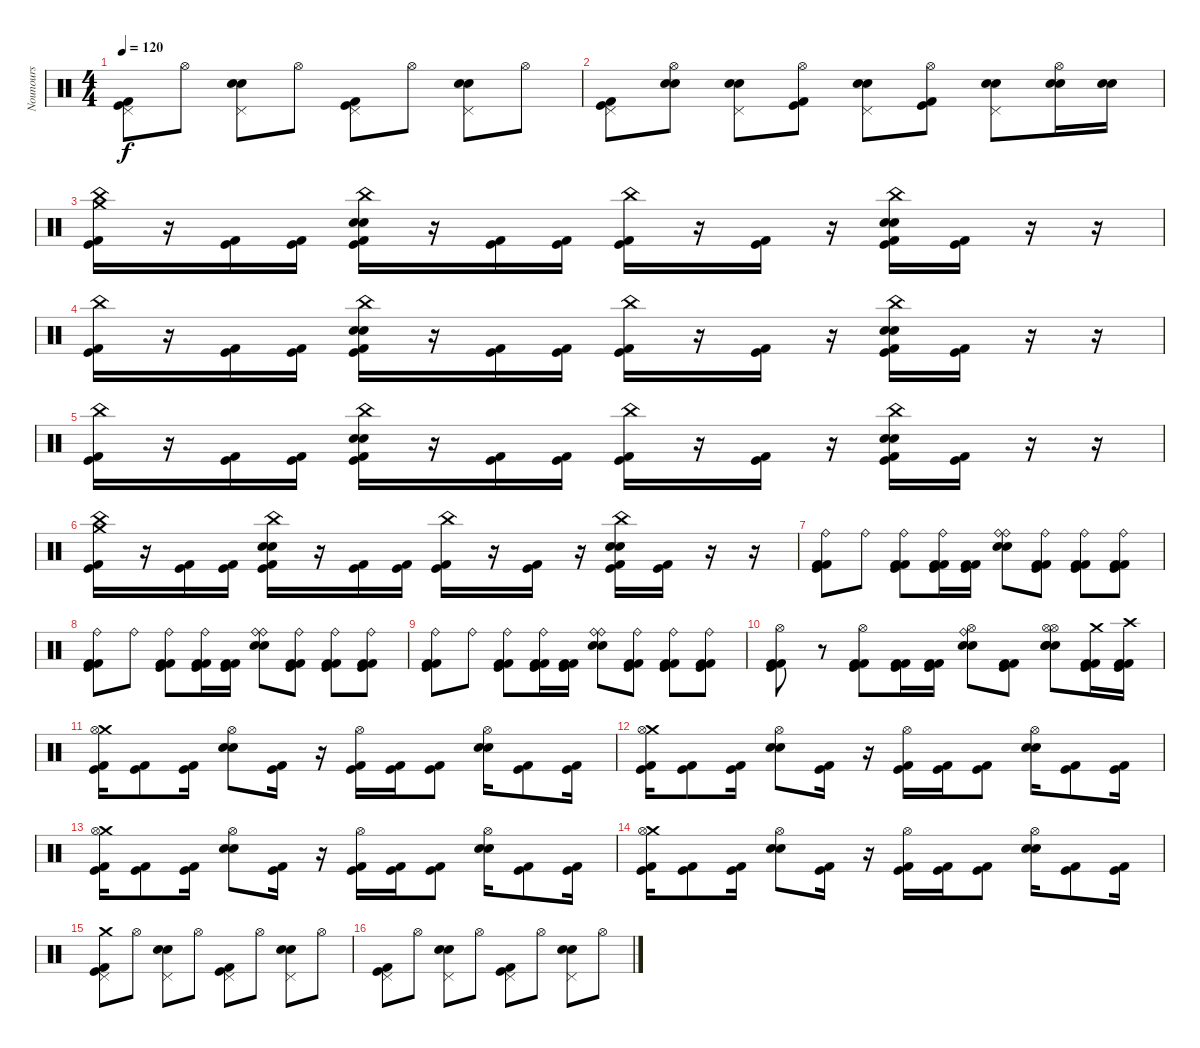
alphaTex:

\track ("Nounours" "Nounours") {instrument percussion}
\staff {score}
\articulation defaults
\ts (4 4)
\tempo 120
\clef neutral
\ks c
("Pedal Hi-Hat (hit)" "Kick (hit) 2" "Kick (hit)").8{dy f} "Hi-Hat (open)".8 ("Pedal Hi-Hat (hit)" "Electric Snare (hit)" "Electric Snare (hit)").8 "Hi-Hat (open)".8 ("Pedal Hi-Hat (hit)" "Kick (hit)" "Kick (hit) 2").8 "Hi-Hat (open)".8 ("Pedal Hi-Hat (hit)" "Electric Snare (hit)" "Electric Snare (hit)").8 "Hi-Hat (open)".8 |
("Pedal Hi-Hat (hit)" "Kick (hit) 2" "Kick (hit)").8 ("Hi-Hat (open)" "Electric Snare (hit)" "Electric Snare (hit)").8 ("Pedal Hi-Hat (hit)" "Electric Snare (hit)" "Electric Snare (hit)").8 ("Hi-Hat (open)" "Kick (hit) 2" "Kick (hit)").8 ("Pedal Hi-Hat (hit)" "Electric Snare (hit)" "Electric Snare (hit)").8 ("Hi-Hat (open)" "Kick (hit) 2" "Kick (hit)").8 ("Pedal Hi-Hat (hit)" "Electric Snare (hit)" "Electric Snare (hit)").8 ("Hi-Hat (open)" "Electric Snare (hit)" "Electric Snare (hit)").16 ("Electric Snare (hit)" "Electric Snare (hit)").16 |
("China (hit)" "Crash medium (hit)" "Kick (hit) 2" "Kick (hit)").16 r.16 ("Kick (hit)" "Kick (hit) 2").16 ("Kick (hit) 2" "Kick (hit)").16 ("China (hit)" "Electric Snare (hit)" "Electric Snare (hit)" "Kick (hit)" "Kick (hit) 2").16 r.16 ("Kick (hit)" "Kick (hit) 2").16 ("Kick (hit) 2" "Kick (hit)").16 ("China (hit)" "Kick (hit)" "Kick (hit) 2").16 r.16 ("Kick (hit)" "Kick (hit) 2").16 r.16 ("China (hit)" "Electric Snare (hit)" "Electric Snare (hit)" "Kick (hit) 2" "Kick (hit)").16 ("Kick (hit) 2" "Kick (hit)").16 r.16 r.16 |
("China (hit)" "Kick (hit) 2" "Kick (hit)").16 r.16 ("Kick (hit)" "Kick (hit) 2").16 ("Kick (hit) 2" "Kick (hit)").16 ("China (hit)" "Electric Snare (hit)" "Electric Snare (hit)" "Kick (hit)" "Kick (hit) 2").16 r.16 ("Kick (hit)" "Kick (hit) 2").16 ("Kick (hit) 2" "Kick (hit)").16 ("China (hit)" "Kick (hit)" "Kick (hit) 2").16 r.16 ("Kick (hit)" "Kick (hit) 2").16 r.16 ("China (hit)" "Electric Snare (hit)" "Electric Snare (hit)" "Kick (hit) 2" "Kick (hit)").16 ("Kick (hit) 2" "Kick (hit)").16 r.16 r.16 |
("China (hit)" "Kick (hit) 2" "Kick (hit)").16 r.16 ("Kick (hit)" "Kick (hit) 2").16 ("Kick (hit) 2" "Kick (hit)").16 ("China (hit)" "Electric Snare (hit)" "Electric Snare (hit)" "Kick (hit)" "Kick (hit) 2").16 r.16 ("Kick (hit)" "Kick (hit) 2").16 ("Kick (hit) 2" "Kick (hit)").16 ("China (hit)" "Kick (hit)" "Kick (hit) 2").16 r.16 ("Kick (hit)" "Kick (hit) 2").16 r.16 ("China (hit)" "Electric Snare (hit)" "Electric Snare (hit)" "Kick (hit) 2" "Kick (hit)").16 ("Kick (hit) 2" "Kick (hit)").16 r.16 r.16 |
("China (hit)" "Crash medium (hit)" "Kick (hit) 2" "Kick (hit)").16 r.16 ("Kick (hit)" "Kick (hit) 2").16 ("Kick (hit) 2" "Kick (hit)").16 ("China (hit)" "Electric Snare (hit)" "Electric Snare (hit)" "Kick (hit)" "Kick (hit) 2").16 r.16 ("Kick (hit)" "Kick (hit) 2").16 ("Kick (hit) 2" "Kick (hit)").16 ("China (hit)" "Kick (hit)" "Kick (hit) 2").16 r.16 ("Kick (hit)" "Kick (hit) 2").16 r.16 ("China (hit)" "Electric Snare (hit)" "Electric Snare (hit)" "Kick (hit) 2" "Kick (hit)").16 ("Kick (hit) 2" "Kick (hit)").16 r.16 r.16 |
("Ride (bell)" "Kick (hit) 2" "Kick (hit) 2" "Kick (hit)").8 "Ride (bell)".8 ("Ride (bell)" "Kick (hit) 2" "Kick (hit)" "Kick (hit) 2").8 ("Ride (bell)" "Kick (hit) 2" "Kick (hit) 2" "Kick (hit)").16 ("Kick (hit) 2" "Kick (hit) 2" "Kick (hit)").16 ("Ride (bell)" "Electric Snare (hit)" "Electric Snare (hit)" "Ride (bell)").8 ("Ride (bell)" "Kick (hit) 2" "Kick (hit) 2" "Kick (hit)").8 ("Ride (bell)" "Kick (hit) 2" "Kick (hit) 2" "Kick (hit)").8 ("Ride (bell)" "Kick (hit) 2" "Kick (hit)" "Kick (hit) 2").8 |
("Ride (bell)" "Kick (hit) 2" "Kick (hit) 2" "Kick (hit)").8 "Ride (bell)".8 ("Ride (bell)" "Kick (hit) 2" "Kick (hit)" "Kick (hit) 2").8 ("Ride (bell)" "Kick (hit) 2" "Kick (hit) 2" "Kick (hit)").16 ("Kick (hit) 2" "Kick (hit) 2" "Kick (hit)").16 ("Ride (bell)" "Electric Snare (hit)" "Electric Snare (hit)" "Ride (bell)").8 ("Ride (bell)" "Kick (hit) 2" "Kick (hit) 2" "Kick (hit)").8 ("Ride (bell)" "Kick (hit) 2" "Kick (hit) 2" "Kick (hit)").8 ("Ride (bell)" "Kick (hit) 2" "Kick (hit)" "Kick (hit) 2").8 |
("Ride (bell)" "Kick (hit) 2" "Kick (hit) 2" "Kick (hit)").8 "Ride (bell)".8 ("Ride (bell)" "Kick (hit) 2" "Kick (hit)" "Kick (hit) 2").8 ("Ride (bell)" "Kick (hit) 2" "Kick (hit) 2" "Kick (hit)").16 ("Kick (hit) 2" "Kick (hit) 2" "Kick (hit)").16 ("Ride (bell)" "Electric Snare (hit)" "Electric Snare (hit)" "Ride (bell)").8 ("Ride (bell)" "Kick (hit) 2" "Kick (hit) 2" "Kick (hit)").8 ("Ride (bell)" "Kick (hit) 2" "Kick (hit) 2" "Kick (hit)").8 ("Ride (bell)" "Kick (hit) 2" "Kick (hit)" "Kick (hit) 2").8 |
("Hi-Hat (open)" "Kick (hit) 2" "Kick (hit) 2" "Kick (hit)").8 r.8 ("Hi-Hat (open)" "Kick (hit) 2" "Kick (hit)" "Kick (hit) 2").8 ("Kick (hit) 2" "Kick (hit) 2" "Kick (hit)").16 ("Kick (hit) 2" "Kick (hit) 2" "Kick (hit)").16 ("Hi-Hat (open)" "Electric Snare (hit)" "Electric Snare (hit)" "Ride (bell)").8 ("Kick (hit) 2" "Kick (hit) 2" "Kick (hit)").8 ("Hi-Hat (open)" "Hi-Hat (open)" "Electric Snare (hit)" "Electric Snare (hit)" "Electric Snare (hit)").8 ("Crash medium (hit)" "Kick (hit) 2" "Kick (hit) 2" "Kick (hit)").16 ("Crash high (hit)" "Kick (hit) 2" "Kick (hit)" "Kick (hit) 2").16 |
("Crash medium (hit)" "Hi-Hat (open)" "Kick (hit) 2" "Kick (hit)").16 ("Kick (hit) 2" "Kick (hit)").8 ("Kick (hit) 2" "Kick (hit)").16 ("Hi-Hat (open)" "Electric Snare (hit)" "Electric Snare (hit)").8 ("Kick (hit) 2" "Kick (hit)").16 r.16 ("Hi-Hat (open)" "Kick (hit) 2" "Kick (hit)").16 ("Kick (hit)" "Kick (hit) 2").16 ("Kick (hit) 2" "Kick (hit)").8 ("Hi-Hat (open)" "Electric Snare (hit)" "Electric Snare (hit)").16 ("Kick (hit)" "Kick (hit) 2").8 ("Kick (hit) 2" "Kick (hit)").16 |
("Crash medium (hit)" "Hi-Hat (open)" "Kick (hit) 2" "Kick (hit)").16 ("Kick (hit) 2" "Kick (hit)").8 ("Kick (hit) 2" "Kick (hit)").16 ("Hi-Hat (open)" "Electric Snare (hit)" "Electric Snare (hit)").8 ("Kick (hit) 2" "Kick (hit)").16 r.16 ("Hi-Hat (open)" "Kick (hit) 2" "Kick (hit)").16 ("Kick (hit)" "Kick (hit) 2").16 ("Kick (hit) 2" "Kick (hit)").8 ("Hi-Hat (open)" "Electric Snare (hit)" "Electric Snare (hit)").16 ("Kick (hit)" "Kick (hit) 2").8 ("Kick (hit) 2" "Kick (hit)").16 |
("Crash medium (hit)" "Hi-Hat (open)" "Kick (hit) 2" "Kick (hit)").16 ("Kick (hit) 2" "Kick (hit)").8 ("Kick (hit) 2" "Kick (hit)").16 ("Hi-Hat (open)" "Electric Snare (hit)" "Electric Snare (hit)").8 ("Kick (hit) 2" "Kick (hit)").16 r.16 ("Hi-Hat (open)" "Kick (hit) 2" "Kick (hit)").16 ("Kick (hit)" "Kick (hit) 2").16 ("Kick (hit) 2" "Kick (hit)").8 ("Hi-Hat (open)" "Electric Snare (hit)" "Electric Snare (hit)").16 ("Kick (hit)" "Kick (hit) 2").8 ("Kick (hit) 2" "Kick (hit)").16 |
("Crash medium (hit)" "Hi-Hat (open)" "Kick (hit) 2" "Kick (hit)").16 ("Kick (hit) 2" "Kick (hit)").8 ("Kick (hit) 2" "Kick (hit)").16 ("Hi-Hat (open)" "Electric Snare (hit)" "Electric Snare (hit)").8 ("Kick (hit) 2" "Kick (hit)").16 r.16 ("Hi-Hat (open)" "Kick (hit) 2" "Kick (hit)").16 ("Kick (hit)" "Kick (hit) 2").16 ("Kick (hit) 2" "Kick (hit)").8 ("Hi-Hat (open)" "Electric Snare (hit)" "Electric Snare (hit)").16 ("Kick (hit)" "Kick (hit) 2").8 ("Kick (hit) 2" "Kick (hit)").16 |
("Pedal Hi-Hat (hit)" "Crash medium (hit)" "Kick (hit) 2" "Kick (hit)").8 "Hi-Hat (open)".8 ("Pedal Hi-Hat (hit)" "Electric Snare (hit)" "Electric Snare (hit)").8 "Hi-Hat (open)".8 ("Pedal Hi-Hat (hit)" "Kick (hit)" "Kick (hit) 2").8 "Hi-Hat (open)".8 ("Pedal Hi-Hat (hit)" "Electric Snare (hit)" "Electric Snare (hit)").8 "Hi-Hat (open)".8 |
("Pedal Hi-Hat (hit)" "Kick (hit) 2" "Kick (hit)").8 "Hi-Hat (open)".8 ("Pedal Hi-Hat (hit)" "Electric Snare (hit)" "Electric Snare (hit)").8 "Hi-Hat (open)".8 ("Pedal Hi-Hat (hit)" "Kick (hit)" "Kick (hit) 2").8 "Hi-Hat (open)".8 ("Pedal Hi-Hat (hit)" "Electric Snare (hit)" "Electric Snare (hit)").8 "Hi-Hat (open)".8
